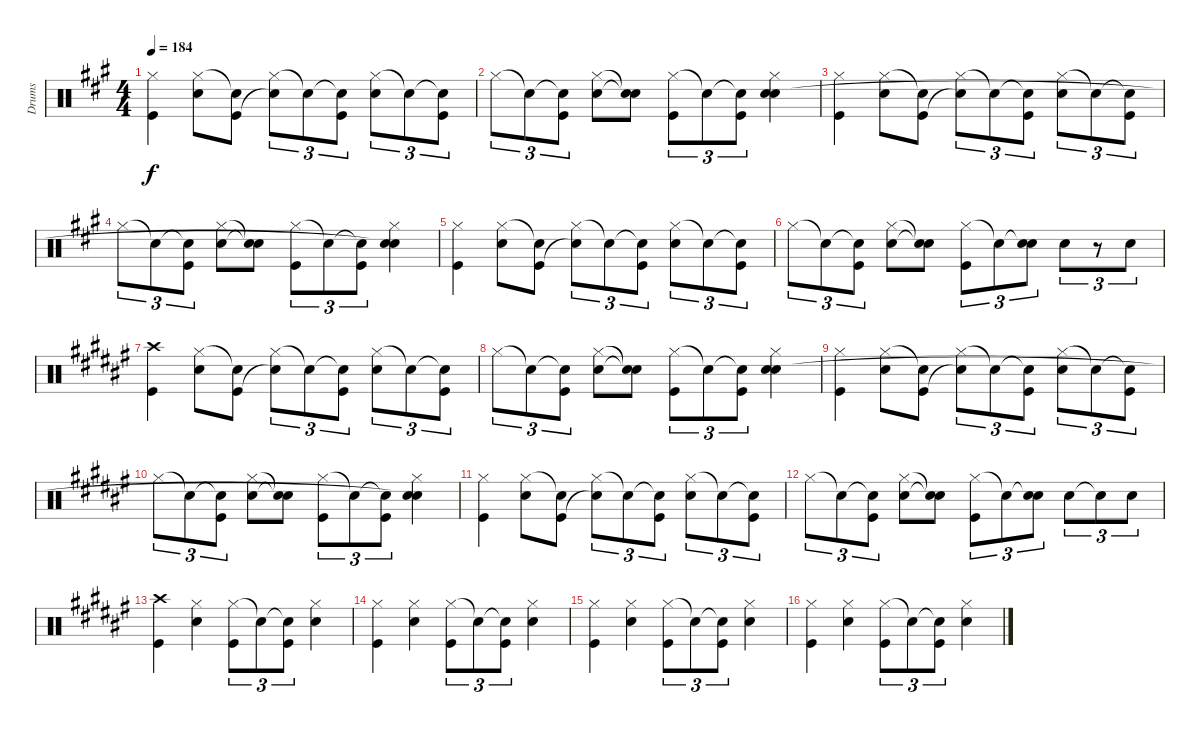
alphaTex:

\track ("Drums" "Drums") {instrument percussion}
\staff {score}
\articulation defaults
\ts (4 4)
\tempo 184
\clef neutral
\ks f#minor
("Hi-Hat (closed)" "Kick (hit)").4{dy f} ("Hi-Hat (closed)" "Electric Snare (hit)").8 ("Snare (hit)"{t} "Kick (hit)").8 ("Hi-Hat (closed)" "Snare (hit)"{t}).8{tu (3 2)} "Snare (hit)"{t}.8{tu (3 2)} ("Snare (hit)"{t} "Kick (hit)").8{tu (3 2)} ("Hi-Hat (closed)" "Electric Snare (hit)").8{tu (3 2)} "Snare (hit)"{t}.8{tu (3 2)} ("Snare (hit)"{t} "Kick (hit)").8{tu (3 2)} |
"Hi-Hat (closed)".8{tu (3 2)} "Snare (hit)"{t}.8{tu (3 2)} ("Snare (hit)"{t} "Kick (hit)").8{tu (3 2)} ("Hi-Hat (closed)" "Electric Snare (hit)").8 ("Snare (hit)"{t} "Snare (hit)"{t}).8 ("Hi-Hat (closed)" "Kick (hit)").8{tu (3 2)} "Snare (hit)"{t}.8{tu (3 2)} ("Snare (hit)"{t} "Kick (hit)").8{tu (3 2)} ("Hi-Hat (closed)" "Electric Snare (hit)" "Snare (hit)"{t}).4 |
("Hi-Hat (closed)" "Kick (hit)").4 ("Hi-Hat (closed)" "Electric Snare (hit)").8 ("Snare (hit)"{t} "Kick (hit)").8 ("Hi-Hat (closed)" "Snare (hit)"{t}).8{tu (3 2)} "Snare (hit)"{t}.8{tu (3 2)} ("Snare (hit)"{t} "Kick (hit)").8{tu (3 2)} ("Hi-Hat (closed)" "Electric Snare (hit)").8{tu (3 2)} "Snare (hit)"{t}.8{tu (3 2)} ("Snare (hit)"{t} "Kick (hit)").8{tu (3 2)} |
"Hi-Hat (closed)".8{tu (3 2)} "Snare (hit)"{t}.8{tu (3 2)} ("Snare (hit)"{t} "Kick (hit)").8{tu (3 2)} ("Hi-Hat (closed)" "Electric Snare (hit)").8 ("Snare (hit)"{t} "Snare (hit)"{t}).8 ("Hi-Hat (closed)" "Kick (hit)").8{tu (3 2)} "Snare (hit)"{t}.8{tu (3 2)} ("Snare (hit)"{t} "Kick (hit)").8{tu (3 2)} ("Hi-Hat (closed)" "Electric Snare (hit)" "Snare (hit)"{t}).4 |
("Hi-Hat (closed)" "Kick (hit)").4 ("Hi-Hat (closed)" "Electric Snare (hit)").8 ("Snare (hit)"{t} "Kick (hit)").8 ("Hi-Hat (closed)" "Snare (hit)"{t}).8{tu (3 2)} "Snare (hit)"{t}.8{tu (3 2)} ("Snare (hit)"{t} "Kick (hit)").8{tu (3 2)} ("Hi-Hat (closed)" "Electric Snare (hit)").8{tu (3 2)} "Snare (hit)"{t}.8{tu (3 2)} ("Snare (hit)"{t} "Kick (hit)").8{tu (3 2)} |
"Hi-Hat (closed)".8{tu (3 2)} "Snare (hit)"{t}.8{tu (3 2)} ("Snare (hit)"{t} "Kick (hit)").8{tu (3 2)} ("Hi-Hat (closed)" "Electric Snare (hit)").8 ("Snare (hit)"{t} "Snare (hit)"{t}).8 ("Hi-Hat (closed)" "Kick (hit)").8{tu (3 2)} "Snare (hit)"{t}.8{tu (3 2)} ("Snare (hit)"{t} "Electric Snare (hit)").8{tu (3 2)} "Electric Snare (hit)".8{tu (3 2)} r.8{tu (3 2)} "Electric Snare (hit)".8{tu (3 2)} |
\ks f#
("Crash high (hit)" "Kick (hit)").4 ("Hi-Hat (closed)" "Electric Snare (hit)").8 ("Snare (hit)"{t} "Kick (hit)").8 ("Hi-Hat (closed)" "Snare (hit)"{t}).8{tu (3 2)} "Snare (hit)"{t}.8{tu (3 2)} ("Snare (hit)"{t} "Kick (hit)").8{tu (3 2)} ("Hi-Hat (closed)" "Electric Snare (hit)").8{tu (3 2)} "Snare (hit)"{t}.8{tu (3 2)} ("Snare (hit)"{t} "Kick (hit)").8{tu (3 2)} |
"Hi-Hat (closed)".8{tu (3 2)} "Snare (hit)"{t}.8{tu (3 2)} ("Snare (hit)"{t} "Kick (hit)").8{tu (3 2)} ("Hi-Hat (closed)" "Electric Snare (hit)").8 ("Snare (hit)"{t} "Snare (hit)"{t}).8 ("Hi-Hat (closed)" "Kick (hit)").8{tu (3 2)} "Snare (hit)"{t}.8{tu (3 2)} ("Snare (hit)"{t} "Kick (hit)").8{tu (3 2)} ("Hi-Hat (closed)" "Electric Snare (hit)" "Snare (hit)").4 |
("Hi-Hat (closed)" "Kick (hit)").4 ("Hi-Hat (closed)" "Electric Snare (hit)").8 ("Snare (hit)"{t} "Kick (hit)").8 ("Hi-Hat (closed)" "Snare (hit)"{t}).8{tu (3 2)} "Snare (hit)"{t}.8{tu (3 2)} ("Snare (hit)"{t} "Kick (hit)").8{tu (3 2)} ("Hi-Hat (closed)" "Electric Snare (hit)").8{tu (3 2)} "Snare (hit)"{t}.8{tu (3 2)} ("Snare (hit)"{t} "Kick (hit)").8{tu (3 2)} |
"Hi-Hat (closed)".8{tu (3 2)} "Snare (hit)"{t}.8{tu (3 2)} ("Snare (hit)"{t} "Kick (hit)").8{tu (3 2)} ("Hi-Hat (closed)" "Electric Snare (hit)").8 ("Snare (hit)"{t} "Snare (hit)"{t}).8 ("Hi-Hat (closed)" "Kick (hit)").8{tu (3 2)} "Snare (hit)"{t}.8{tu (3 2)} ("Snare (hit)"{t} "Kick (hit)").8{tu (3 2)} ("Hi-Hat (closed)" "Electric Snare (hit)" "Snare (hit)"{t}).4 |
("Hi-Hat (closed)" "Kick (hit)").4 ("Hi-Hat (closed)" "Electric Snare (hit)").8 ("Snare (hit)"{t} "Kick (hit)").8 ("Hi-Hat (closed)" "Snare (hit)"{t}).8{tu (3 2)} "Snare (hit)"{t}.8{tu (3 2)} ("Snare (hit)"{t} "Kick (hit)").8{tu (3 2)} ("Hi-Hat (closed)" "Electric Snare (hit)").8{tu (3 2)} "Snare (hit)"{t}.8{tu (3 2)} ("Snare (hit)"{t} "Kick (hit)").8{tu (3 2)} |
"Hi-Hat (closed)".8{tu (3 2)} "Snare (hit)"{t}.8{tu (3 2)} ("Snare (hit)"{t} "Kick (hit)").8{tu (3 2)} ("Hi-Hat (closed)" "Electric Snare (hit)").8 ("Snare (hit)"{t} "Snare (hit)"{t}).8 ("Hi-Hat (closed)" "Kick (hit)").8{tu (3 2)} "Snare (hit)"{t}.8{tu (3 2)} ("Snare (hit)"{t} "Electric Snare (hit)").8{tu (3 2)} "Electric Snare (hit)".8{tu (3 2)} "Snare (hit)"{t}.8{tu (3 2)} "Electric Snare (hit)".8{tu (3 2)} |
("Crash high (hit)" "Kick (hit)").4 ("Hi-Hat (closed)" "Electric Snare (hit)").4 ("Hi-Hat (closed)" "Kick (hit)").8{tu (3 2)} "Snare (hit)"{t}.8{tu (3 2)} ("Snare (hit)"{t} "Kick (hit)").8{tu (3 2)} ("Hi-Hat (closed)" "Electric Snare (hit)").4 |
("Hi-Hat (closed)" "Kick (hit)").4 ("Hi-Hat (closed)" "Electric Snare (hit)").4 ("Hi-Hat (closed)" "Kick (hit)").8{tu (3 2)} "Snare (hit)"{t}.8{tu (3 2)} ("Snare (hit)"{t} "Kick (hit)").8{tu (3 2)} ("Hi-Hat (closed)" "Electric Snare (hit)").4 |
("Hi-Hat (closed)" "Kick (hit)").4 ("Hi-Hat (closed)" "Electric Snare (hit)").4 ("Hi-Hat (closed)" "Kick (hit)").8{tu (3 2)} "Snare (hit)"{t}.8{tu (3 2)} ("Snare (hit)"{t} "Kick (hit)").8{tu (3 2)} ("Hi-Hat (closed)" "Electric Snare (hit)").4 |
("Hi-Hat (closed)" "Kick (hit)").4 ("Hi-Hat (closed)" "Electric Snare (hit)").4 ("Hi-Hat (closed)" "Kick (hit)").8{tu (3 2)} "Snare (hit)"{t}.8{tu (3 2)} ("Snare (hit)"{t} "Kick (hit)").8{tu (3 2)} ("Hi-Hat (closed)" "Electric Snare (hit)").4
